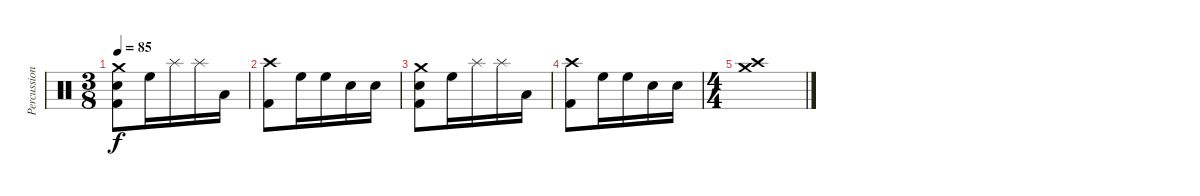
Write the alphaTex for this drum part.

\track ("Percussion" "Percussion") {instrument percussion}
\staff {score}
\articulation defaults
\ts (3 8)
\tempo 85
\clef neutral
\ks c
("Crash medium (hit)" "Electric Snare (hit)" "Kick (hit) 2").8{dy f} "High Floor Tom (hit)".16 "Splash (hit)".16 "Splash (hit)".16 "Low Tom (hit)".16 |
("Crash high (hit)" "Kick (hit) 2").8 "High Floor Tom (hit)".16 "High Floor Tom (hit)".16 "Electric Snare (hit)".16 "Electric Snare (hit)".16 |
("Crash medium (hit)" "Electric Snare (hit)" "Kick (hit) 2").8 "High Floor Tom (hit)".16 "Splash (hit)".16 "Splash (hit)".16 "Low Tom (hit)".16 |
("Crash high (hit)" "Kick (hit) 2").8 "High Floor Tom (hit)".16 "High Floor Tom (hit)".16 "Electric Snare (hit)".16 "Electric Snare (hit)".16 |
\ts (4 4)
("Crash medium (hit)" "Crash high (hit)").1
